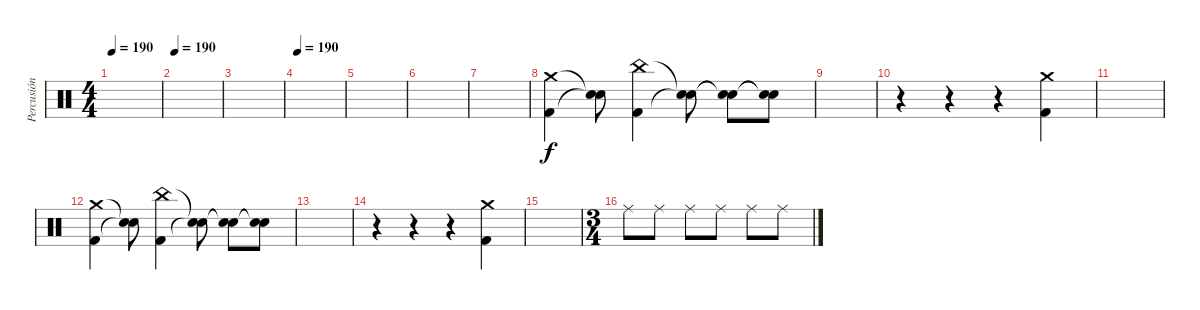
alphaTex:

\track ("Percusión" "Percusión") {instrument percussion}
\staff {score}
\articulation defaults
\ts (4 4)
\tempo 190
\clef neutral
\ks c
|
\tempo 190
|
|
\tempo 190
|
|
|
|
("Crash medium (hit)" "Kick (hit) 2").4 ("Snare (hit)"{t} "Snare (hit)"{t}).8 ("China (hit)" "Kick (hit) 2").4 ("Snare (hit)"{t} "Snare (hit)"{t}).8 ("Snare (hit)"{t} "Snare (hit)"{t}).8 ("Snare (hit)"{t} "Snare (hit)"{t}).8 |
|
r.4 r.4 r.4 ("Crash medium (hit)" "Kick (hit) 2").4 |
|
("Crash medium (hit)" "Kick (hit) 2").4 ("Snare (hit)"{t} "Snare (hit)"{t}).8 ("China (hit)" "Kick (hit) 2").4 ("Snare (hit)"{t} "Snare (hit)"{t}).8 ("Snare (hit)"{t} "Snare (hit)"{t}).8 ("Snare (hit)"{t} "Snare (hit)"{t}).8 |
|
r.4 r.4 r.4 ("Crash medium (hit)" "Kick (hit) 2").4 |
|
\ts (3 4)
"Ride (middle)".8 "Ride (middle)".8 "Ride (middle)".8 "Ride (middle)".8 "Ride (middle)".8 "Ride (middle)".8
